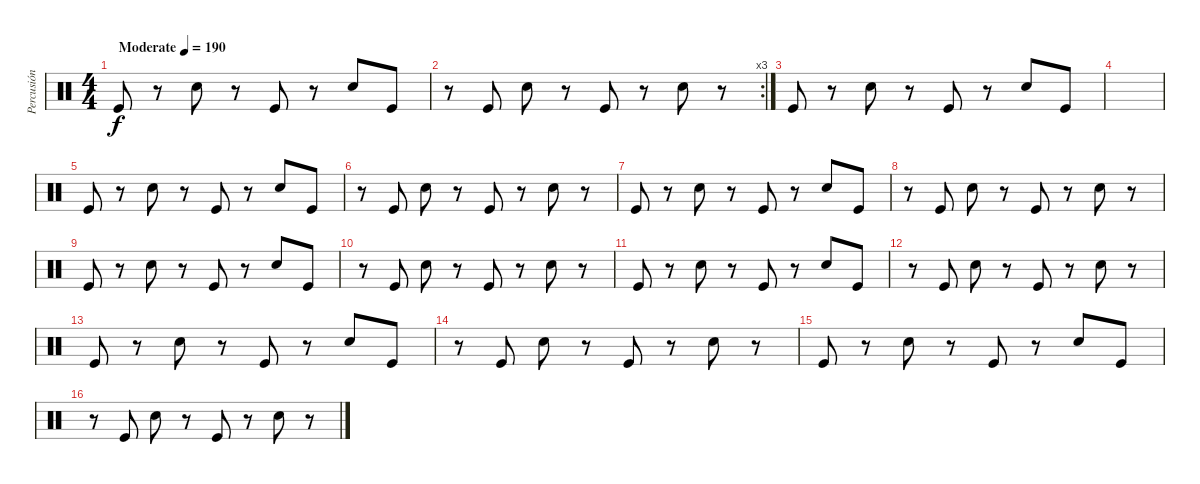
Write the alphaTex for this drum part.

\track ("Percusión" "Percusión") {instrument percussion}
\staff {score}
\articulation defaults
\ts (4 4)
\tempo (190 "Moderate")
\clef neutral
\ks c "Kick (hit)".8{dy f}
r.8 "Snare (hit) 2".8 r.8 "Kick (hit)".8 r.8 "Snare (hit) 2".8 "Kick (hit)".8 |
\rc 3
r.8 "Kick (hit)".8 "Snare (hit) 2".8 r.8 "Kick (hit)".8 r.8 "Snare (hit) 2".8 r.8 |
"Kick (hit)".8 r.8 "Snare (hit) 2".8 r.8 "Kick (hit)".8 r.8 "Snare (hit) 2".8 "Kick (hit)".8 |
|
"Kick (hit)".8 r.8 "Snare (hit) 2".8 r.8 "Kick (hit)".8 r.8 "Snare (hit) 2".8 "Kick (hit)".8 |
r.8 "Kick (hit)".8 "Snare (hit) 2".8 r.8 "Kick (hit)".8 r.8 "Snare (hit) 2".8 r.8 |
"Kick (hit)".8 r.8 "Snare (hit) 2".8 r.8 "Kick (hit)".8 r.8 "Snare (hit) 2".8 "Kick (hit)".8 |
r.8 "Kick (hit)".8 "Snare (hit) 2".8 r.8 "Kick (hit)".8 r.8 "Snare (hit) 2".8 r.8 |
"Kick (hit)".8 r.8 "Snare (hit) 2".8 r.8 "Kick (hit)".8 r.8 "Snare (hit) 2".8 "Kick (hit)".8 |
r.8 "Kick (hit)".8 "Snare (hit) 2".8 r.8 "Kick (hit)".8 r.8 "Snare (hit) 2".8 r.8 |
"Kick (hit)".8 r.8 "Snare (hit) 2".8 r.8 "Kick (hit)".8 r.8 "Snare (hit) 2".8 "Kick (hit)".8 |
r.8 "Kick (hit)".8 "Snare (hit) 2".8 r.8 "Kick (hit)".8 r.8 "Snare (hit) 2".8 r.8 |
"Kick (hit)".8 r.8 "Snare (hit) 2".8 r.8 "Kick (hit)".8 r.8 "Snare (hit) 2".8 "Kick (hit)".8 |
r.8 "Kick (hit)".8 "Snare (hit) 2".8 r.8 "Kick (hit)".8 r.8 "Snare (hit) 2".8 r.8 |
"Kick (hit)".8 r.8 "Snare (hit) 2".8 r.8 "Kick (hit)".8 r.8 "Snare (hit) 2".8 "Kick (hit)".8 |
r.8 "Kick (hit)".8 "Snare (hit) 2".8 r.8 "Kick (hit)".8 r.8 "Snare (hit) 2".8 r.8
